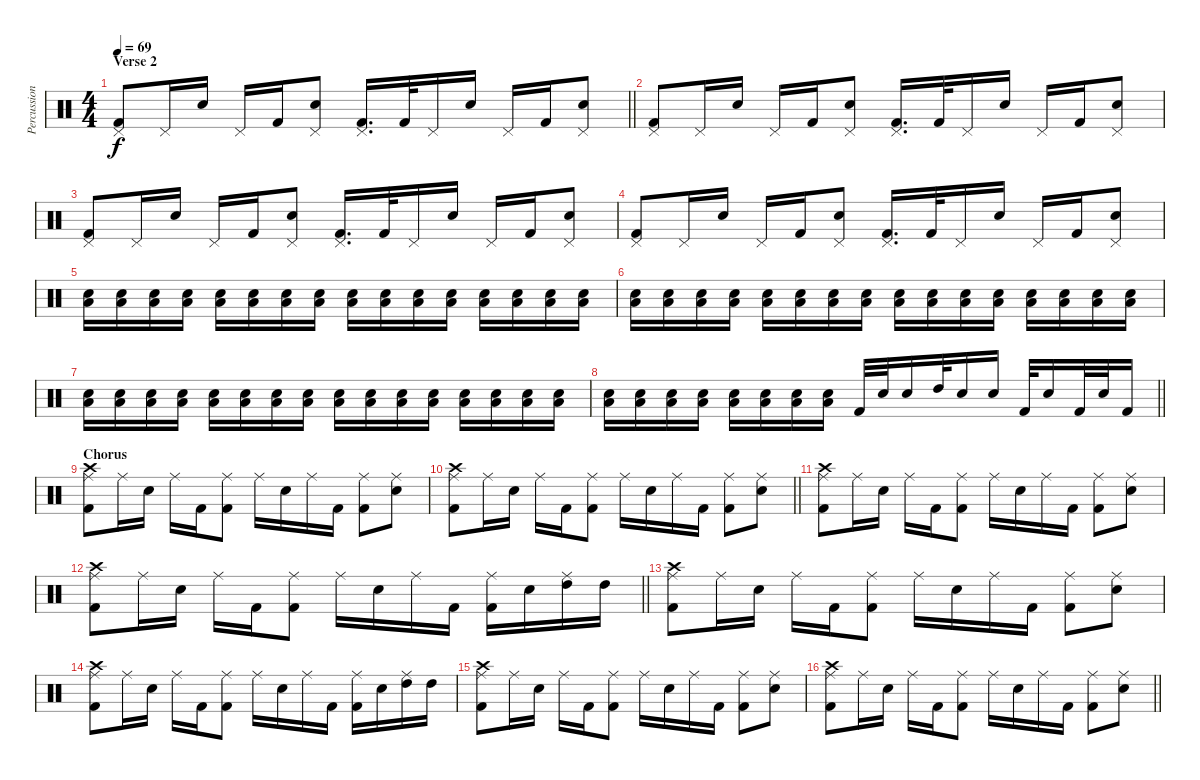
\track ("Percussion" "Percussion") {instrument percussion}
\staff {score}
\articulation defaults
\ts (4 4)
\section ("" "Verse 2")
\tempo 69
\clef neutral
\barLineRight lightlight
\ks c
("Pedal Hi-Hat (hit)" "Kick (hit) 2").8{dy f} "Pedal Hi-Hat (hit)".16 "Electric Snare (hit)".16 "Pedal Hi-Hat (hit)".16 "Kick (hit) 2".16 ("Pedal Hi-Hat (hit)" "Electric Snare (hit)").8 ("Pedal Hi-Hat (hit)" "Kick (hit) 2").16{d} "Kick (hit) 2".32 "Pedal Hi-Hat (hit)".16 "Electric Snare (hit)".16 "Pedal Hi-Hat (hit)".16 "Kick (hit) 2".16 ("Pedal Hi-Hat (hit)" "Electric Snare (hit)").8 |
("Pedal Hi-Hat (hit)" "Kick (hit) 2").8 "Pedal Hi-Hat (hit)".16 "Electric Snare (hit)".16 "Pedal Hi-Hat (hit)".16 "Kick (hit) 2".16 ("Pedal Hi-Hat (hit)" "Electric Snare (hit)").8 ("Pedal Hi-Hat (hit)" "Kick (hit) 2").16{d} "Kick (hit) 2".32 "Pedal Hi-Hat (hit)".16 "Electric Snare (hit)".16 "Pedal Hi-Hat (hit)".16 "Kick (hit) 2".16 ("Pedal Hi-Hat (hit)" "Electric Snare (hit)").8 |
("Pedal Hi-Hat (hit)" "Kick (hit) 2").8 "Pedal Hi-Hat (hit)".16 "Electric Snare (hit)".16 "Pedal Hi-Hat (hit)".16 "Kick (hit) 2".16 ("Pedal Hi-Hat (hit)" "Electric Snare (hit)").8 ("Pedal Hi-Hat (hit)" "Kick (hit) 2").16{d} "Kick (hit) 2".32 "Pedal Hi-Hat (hit)".16 "Electric Snare (hit)".16 "Pedal Hi-Hat (hit)".16 "Kick (hit) 2".16 ("Pedal Hi-Hat (hit)" "Electric Snare (hit)").8 |
("Pedal Hi-Hat (hit)" "Kick (hit) 2").8 "Pedal Hi-Hat (hit)".16 "Electric Snare (hit)".16 "Pedal Hi-Hat (hit)".16 "Kick (hit) 2".16 ("Pedal Hi-Hat (hit)" "Electric Snare (hit)").8 ("Pedal Hi-Hat (hit)" "Kick (hit) 2").16{d} "Kick (hit) 2".32 "Pedal Hi-Hat (hit)".16 "Electric Snare (hit)".16 "Pedal Hi-Hat (hit)".16 "Kick (hit) 2".16 ("Pedal Hi-Hat (hit)" "Electric Snare (hit)").8 |
("Electric Snare (hit)" "Low Tom (hit)").16{volume 8} ("Electric Snare (hit)" "Low Tom (hit)").16 ("Electric Snare (hit)" "Low Tom (hit)").16 ("Electric Snare (hit)" "Low Tom (hit)").16 ("Electric Snare (hit)" "Low Tom (hit)").16 ("Electric Snare (hit)" "Low Tom (hit)").16 ("Electric Snare (hit)" "Low Tom (hit)").16 ("Electric Snare (hit)" "Low Tom (hit)").16 ("Electric Snare (hit)" "Low Tom (hit)").16 ("Electric Snare (hit)" "Low Tom (hit)").16 ("Electric Snare (hit)" "Low Tom (hit)").16 ("Electric Snare (hit)" "Low Tom (hit)").16 ("Electric Snare (hit)" "Low Tom (hit)").16 ("Electric Snare (hit)" "Low Tom (hit)").16 ("Electric Snare (hit)" "Low Tom (hit)").16 ("Electric Snare (hit)" "Low Tom (hit)").16 |
("Electric Snare (hit)" "Low Tom (hit)").16 ("Electric Snare (hit)" "Low Tom (hit)").16 ("Electric Snare (hit)" "Low Tom (hit)").16 ("Electric Snare (hit)" "Low Tom (hit)").16 ("Electric Snare (hit)" "Low Tom (hit)").16 ("Electric Snare (hit)" "Low Tom (hit)").16 ("Electric Snare (hit)" "Low Tom (hit)").16 ("Electric Snare (hit)" "Low Tom (hit)").16 ("Electric Snare (hit)" "Low Tom (hit)").16 ("Electric Snare (hit)" "Low Tom (hit)").16 ("Electric Snare (hit)" "Low Tom (hit)").16 ("Electric Snare (hit)" "Low Tom (hit)").16 ("Electric Snare (hit)" "Low Tom (hit)").16 ("Electric Snare (hit)" "Low Tom (hit)").16 ("Electric Snare (hit)" "Low Tom (hit)").16 ("Electric Snare (hit)" "Low Tom (hit)").16 |
("Electric Snare (hit)" "Low Tom (hit)").16 ("Electric Snare (hit)" "Low Tom (hit)").16 ("Electric Snare (hit)" "Low Tom (hit)").16 ("Electric Snare (hit)" "Low Tom (hit)").16 ("Electric Snare (hit)" "Low Tom (hit)").16 ("Electric Snare (hit)" "Low Tom (hit)").16 ("Electric Snare (hit)" "Low Tom (hit)").16 ("Electric Snare (hit)" "Low Tom (hit)").16 ("Electric Snare (hit)" "Low Tom (hit)").16 ("Electric Snare (hit)" "Low Tom (hit)").16 ("Electric Snare (hit)" "Low Tom (hit)").16 ("Electric Snare (hit)" "Low Tom (hit)").16 ("Electric Snare (hit)" "Low Tom (hit)").16 ("Electric Snare (hit)" "Low Tom (hit)").16 ("Electric Snare (hit)" "Low Tom (hit)").16 ("Electric Snare (hit)" "Low Tom (hit)").16 |
\barLineRight lightlight
("Electric Snare (hit)" "Low Tom (hit)").16 ("Electric Snare (hit)" "Low Tom (hit)").16 ("Electric Snare (hit)" "Low Tom (hit)").16 ("Electric Snare (hit)" "Low Tom (hit)").16 ("Electric Snare (hit)" "Low Tom (hit)").16 ("Electric Snare (hit)" "Low Tom (hit)").16 ("Electric Snare (hit)" "Low Tom (hit)").16 ("Electric Snare (hit)" "Low Tom (hit)").16 "Kick (hit) 2".32 "Electric Snare (hit)".32 "Electric Snare (hit)".16 "High Tom (hit)".32 "Electric Snare (hit)".16 "Electric Snare (hit)".16 "Kick (hit) 2".32 "Electric Snare (hit)".16 "Kick (hit) 2".32 "Electric Snare (hit)".32 "Kick (hit) 2".16 |
\section ("" "Chorus")
("Ride (middle)" "Crash high (hit)" "Kick (hit) 2").8{volume 13} "Ride (middle)".16 "Electric Snare (hit)".16 "Ride (middle)".16 "Kick (hit) 2".16 ("Ride (middle)" "Kick (hit) 2").8 "Ride (middle)".16 "Electric Snare (hit)".16 "Ride (middle)".16 "Kick (hit) 2".16 ("Ride (middle)" "Kick (hit) 2").8 ("Ride (middle)" "Electric Snare (hit)").8 |
\barLineRight lightlight
("Ride (middle)" "Crash high (hit)" "Kick (hit) 2").8 "Ride (middle)".16 "Electric Snare (hit)".16 "Ride (middle)".16 "Kick (hit) 2".16 ("Ride (middle)" "Kick (hit) 2").8 "Ride (middle)".16 "Electric Snare (hit)".16 "Ride (middle)".16 "Kick (hit) 2".16 ("Ride (middle)" "Kick (hit) 2").8 ("Ride (middle)" "Electric Snare (hit)").8 |
("Ride (middle)" "Crash high (hit)" "Kick (hit) 2").8 "Ride (middle)".16 "Electric Snare (hit)".16 "Ride (middle)".16 "Kick (hit) 2".16 ("Ride (middle)" "Kick (hit) 2").8 "Ride (middle)".16 "Electric Snare (hit)".16 "Ride (middle)".16 "Kick (hit) 2".16 ("Ride (middle)" "Kick (hit) 2").8 ("Ride (middle)" "Electric Snare (hit)").8 |
\barLineRight lightlight
("Ride (middle)" "Crash high (hit)" "Kick (hit) 2").8 "Ride (middle)".16 "Electric Snare (hit)".16 "Ride (middle)".16 "Kick (hit) 2".16 ("Ride (middle)" "Kick (hit) 2").8 "Ride (middle)".16 "Electric Snare (hit)".16 "Ride (middle)".16 "Kick (hit) 2".16 ("Ride (middle)" "Kick (hit) 2").16 "Electric Snare (hit)".16 ("Ride (middle)" "High Tom (hit)").16 "High Tom (hit)".16 |
("Ride (middle)" "Crash high (hit)" "Kick (hit) 2").8 "Ride (middle)".16 "Electric Snare (hit)".16 "Ride (middle)".16 "Kick (hit) 2".16 ("Ride (middle)" "Kick (hit) 2").8 "Ride (middle)".16 "Electric Snare (hit)".16 "Ride (middle)".16 "Kick (hit) 2".16 ("Ride (middle)" "Kick (hit) 2").8 ("Ride (middle)" "Electric Snare (hit)").8 |
("Ride (middle)" "Crash high (hit)" "Kick (hit) 2").8 "Ride (middle)".16 "Electric Snare (hit)".16 "Ride (middle)".16 "Kick (hit) 2".16 ("Ride (middle)" "Kick (hit) 2").8 "Ride (middle)".16 "Electric Snare (hit)".16 "Ride (middle)".16 "Kick (hit) 2".16 ("Ride (middle)" "Kick (hit) 2").16 "Electric Snare (hit)".16 ("Ride (middle)" "High Tom (hit)").16 "High Tom (hit)".16 |
("Ride (middle)" "Crash high (hit)" "Kick (hit) 2").8 "Ride (middle)".16 "Electric Snare (hit)".16 "Ride (middle)".16 "Kick (hit) 2".16 ("Ride (middle)" "Kick (hit) 2").8 "Ride (middle)".16 "Electric Snare (hit)".16 "Ride (middle)".16 "Kick (hit) 2".16 ("Ride (middle)" "Kick (hit) 2").8 ("Ride (middle)" "Electric Snare (hit)").8 |
\barLineRight lightlight
("Ride (middle)" "Crash high (hit)" "Kick (hit) 2").8 "Ride (middle)".16 "Electric Snare (hit)".16 "Ride (middle)".16 "Kick (hit) 2".16 ("Ride (middle)" "Kick (hit) 2").8 "Ride (middle)".16 "Electric Snare (hit)".16 "Ride (middle)".16 "Kick (hit) 2".16 ("Ride (middle)" "Kick (hit) 2").8 ("Ride (middle)" "Electric Snare (hit)").8
